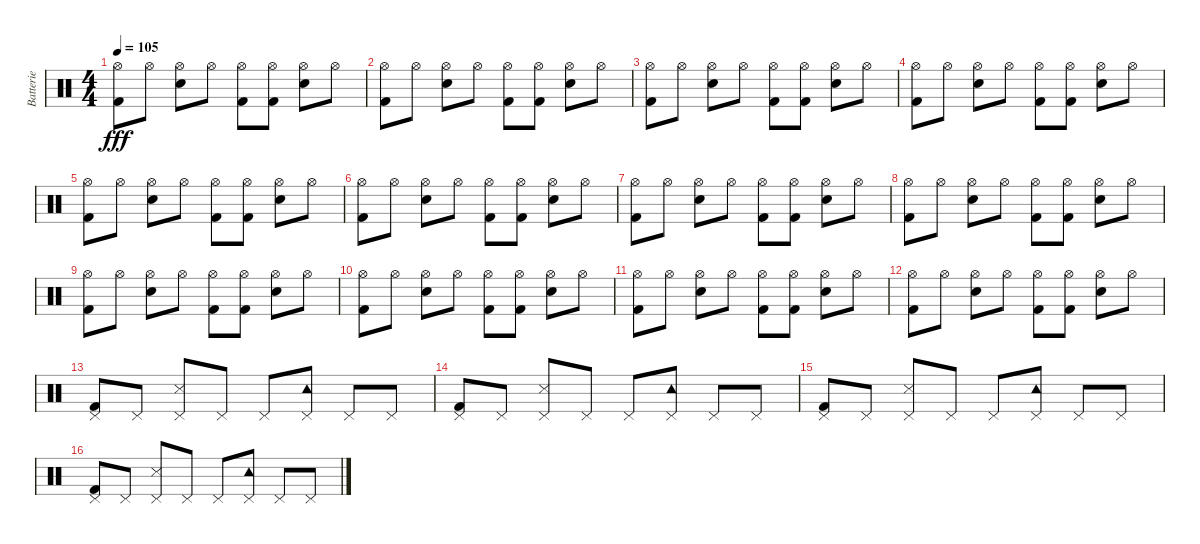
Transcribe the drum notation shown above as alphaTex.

\track ("Batterie" "Batterie") {instrument percussion}
\staff {score}
\articulation defaults
\ts (4 4)
\tempo 105
\clef neutral
\ks c
("Hi-Hat (open)" "Kick (hit) 2").8{dy fff} "Hi-Hat (open)".8 ("Hi-Hat (open)" "Electric Snare (hit)").8 "Hi-Hat (open)".8 ("Hi-Hat (open)" "Kick (hit) 2").8 ("Hi-Hat (open)" "Kick (hit) 2").8 ("Hi-Hat (open)" "Electric Snare (hit)").8 "Hi-Hat (open)".8 |
("Hi-Hat (open)" "Kick (hit) 2").8 "Hi-Hat (open)".8 ("Hi-Hat (open)" "Electric Snare (hit)").8 "Hi-Hat (open)".8 ("Hi-Hat (open)" "Kick (hit) 2").8 ("Hi-Hat (open)" "Kick (hit) 2").8 ("Hi-Hat (open)" "Electric Snare (hit)").8 "Hi-Hat (open)".8 |
("Hi-Hat (open)" "Kick (hit) 2").8 "Hi-Hat (open)".8 ("Hi-Hat (open)" "Electric Snare (hit)").8 "Hi-Hat (open)".8 ("Hi-Hat (open)" "Kick (hit) 2").8 ("Hi-Hat (open)" "Kick (hit) 2").8 ("Hi-Hat (open)" "Electric Snare (hit)").8 "Hi-Hat (open)".8 |
("Hi-Hat (open)" "Kick (hit) 2").8 "Hi-Hat (open)".8 ("Hi-Hat (open)" "Electric Snare (hit)").8 "Hi-Hat (open)".8 ("Hi-Hat (open)" "Kick (hit) 2").8 ("Hi-Hat (open)" "Kick (hit) 2").8 ("Hi-Hat (open)" "Electric Snare (hit)").8 "Hi-Hat (open)".8 |
("Hi-Hat (open)" "Kick (hit) 2").8 "Hi-Hat (open)".8 ("Hi-Hat (open)" "Electric Snare (hit)").8 "Hi-Hat (open)".8 ("Hi-Hat (open)" "Kick (hit) 2").8 ("Hi-Hat (open)" "Kick (hit) 2").8 ("Hi-Hat (open)" "Electric Snare (hit)").8 "Hi-Hat (open)".8 |
("Hi-Hat (open)" "Kick (hit) 2").8 "Hi-Hat (open)".8 ("Hi-Hat (open)" "Electric Snare (hit)").8 "Hi-Hat (open)".8 ("Hi-Hat (open)" "Kick (hit) 2").8 ("Hi-Hat (open)" "Kick (hit) 2").8 ("Hi-Hat (open)" "Electric Snare (hit)").8 "Hi-Hat (open)".8 |
("Hi-Hat (open)" "Kick (hit) 2").8 "Hi-Hat (open)".8 ("Hi-Hat (open)" "Electric Snare (hit)").8 "Hi-Hat (open)".8 ("Hi-Hat (open)" "Kick (hit) 2").8 ("Hi-Hat (open)" "Kick (hit) 2").8 ("Hi-Hat (open)" "Electric Snare (hit)").8 "Hi-Hat (open)".8 |
("Hi-Hat (open)" "Kick (hit) 2").8 "Hi-Hat (open)".8 ("Hi-Hat (open)" "Electric Snare (hit)").8 "Hi-Hat (open)".8 ("Hi-Hat (open)" "Kick (hit) 2").8 ("Hi-Hat (open)" "Kick (hit) 2").8 ("Hi-Hat (open)" "Electric Snare (hit)").8 "Hi-Hat (open)".8 |
("Hi-Hat (open)" "Kick (hit) 2").8 "Hi-Hat (open)".8 ("Hi-Hat (open)" "Electric Snare (hit)").8 "Hi-Hat (open)".8 ("Hi-Hat (open)" "Kick (hit) 2").8 ("Hi-Hat (open)" "Kick (hit) 2").8 ("Hi-Hat (open)" "Electric Snare (hit)").8 "Hi-Hat (open)".8 |
("Hi-Hat (open)" "Kick (hit) 2").8 "Hi-Hat (open)".8 ("Hi-Hat (open)" "Electric Snare (hit)").8 "Hi-Hat (open)".8 ("Hi-Hat (open)" "Kick (hit) 2").8 ("Hi-Hat (open)" "Kick (hit) 2").8 ("Hi-Hat (open)" "Electric Snare (hit)").8 "Hi-Hat (open)".8 |
("Hi-Hat (open)" "Kick (hit) 2").8 "Hi-Hat (open)".8 ("Hi-Hat (open)" "Electric Snare (hit)").8 "Hi-Hat (open)".8 ("Hi-Hat (open)" "Kick (hit) 2").8 ("Hi-Hat (open)" "Kick (hit) 2").8 ("Hi-Hat (open)" "Electric Snare (hit)").8 "Hi-Hat (open)".8 |
("Hi-Hat (open)" "Kick (hit) 2").8 "Hi-Hat (open)".8 ("Hi-Hat (open)" "Electric Snare (hit)").8 "Hi-Hat (open)".8 ("Hi-Hat (open)" "Kick (hit) 2").8 ("Hi-Hat (open)" "Kick (hit) 2").8 ("Hi-Hat (open)" "Electric Snare (hit)").8 "Hi-Hat (open)".8 |
("Pedal Hi-Hat (hit)" "Kick (hit) 2").8 "Pedal Hi-Hat (hit)".8 ("Pedal Hi-Hat (hit)" "Snare (side stick) 3").8 "Pedal Hi-Hat (hit)".8 "Pedal Hi-Hat (hit)".8 ("Pedal Hi-Hat (hit)" "Tambourine (hit)").8 "Pedal Hi-Hat (hit)".8 "Pedal Hi-Hat (hit)".8 |
("Pedal Hi-Hat (hit)" "Kick (hit) 2").8 "Pedal Hi-Hat (hit)".8 ("Pedal Hi-Hat (hit)" "Snare (side stick) 3").8 "Pedal Hi-Hat (hit)".8 "Pedal Hi-Hat (hit)".8 ("Pedal Hi-Hat (hit)" "Tambourine (hit)").8 "Pedal Hi-Hat (hit)".8 "Pedal Hi-Hat (hit)".8 |
("Pedal Hi-Hat (hit)" "Kick (hit) 2").8 "Pedal Hi-Hat (hit)".8 ("Pedal Hi-Hat (hit)" "Snare (side stick) 3").8 "Pedal Hi-Hat (hit)".8 "Pedal Hi-Hat (hit)".8 ("Pedal Hi-Hat (hit)" "Tambourine (hit)").8 "Pedal Hi-Hat (hit)".8 "Pedal Hi-Hat (hit)".8 |
("Pedal Hi-Hat (hit)" "Kick (hit) 2").8 "Pedal Hi-Hat (hit)".8 ("Pedal Hi-Hat (hit)" "Snare (side stick) 3").8 "Pedal Hi-Hat (hit)".8 "Pedal Hi-Hat (hit)".8 ("Pedal Hi-Hat (hit)" "Tambourine (hit)").8 "Pedal Hi-Hat (hit)".8 "Pedal Hi-Hat (hit)".8
